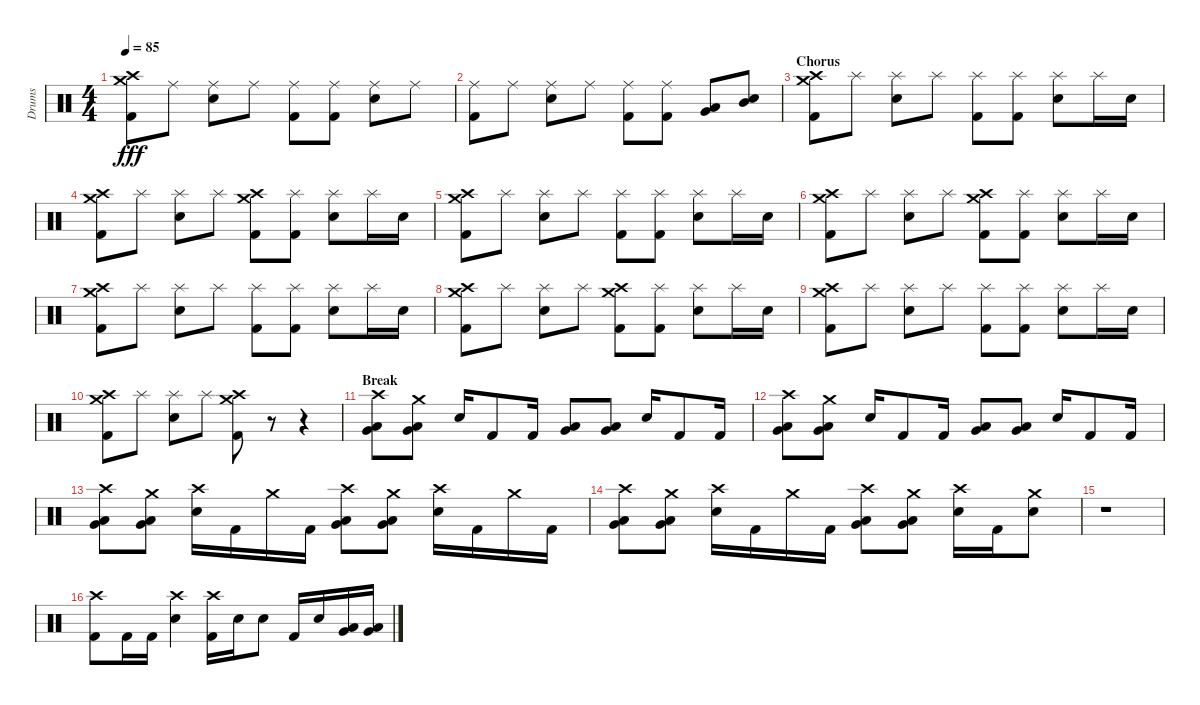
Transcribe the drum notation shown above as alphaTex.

\track ("Drums" "Drums") {instrument percussion}
\staff {score}
\articulation defaults
\ts (4 4)
\tempo 85
\clef neutral
\ks c
("Crash high (hit)" "Crash medium (hit)" "Kick (hit) 2").8{dy fff} "Ride (middle)".8 ("Ride (middle)" "Electric Snare (hit)").8 "Ride (middle)".8 ("Ride (middle)" "Kick (hit) 2").8 ("Ride (middle)" "Kick (hit) 2").8 ("Ride (middle)" "Electric Snare (hit)").8 "Ride (middle)".8 |
("Ride (middle)" "Kick (hit) 2").8 "Ride (middle)".8 ("Ride (middle)" "Electric Snare (hit)").8 "Ride (middle)".8 ("Ride (middle)" "Kick (hit) 2").8 ("Ride (middle)" "Kick (hit) 2").8 ("Low Tom (hit)" "Very Low Tom (hit)").8 ("Mid Tom (hit)" "Electric Snare (hit)").8 |
\section ("" "Chorus")
("Crash high (hit)" "Crash medium (hit)" "Kick (hit) 2").8 "Splash (hit)".8 ("Splash (hit)" "Electric Snare (hit)").8 "Splash (hit)".8 ("Splash (hit)" "Kick (hit) 2").8 ("Splash (hit)" "Kick (hit) 2").8 ("Splash (hit)" "Electric Snare (hit)").8 "Splash (hit)".16 "Electric Snare (hit)".16 |
("Crash high (hit)" "Crash medium (hit)" "Kick (hit) 2").8 "Splash (hit)".8 ("Splash (hit)" "Electric Snare (hit)").8 "Splash (hit)".8 ("Crash high (hit)" "Crash medium (hit)" "Kick (hit) 2").8 ("Splash (hit)" "Kick (hit) 2").8 ("Splash (hit)" "Electric Snare (hit)").8 "Splash (hit)".16 "Electric Snare (hit)".16 |
("Crash high (hit)" "Crash medium (hit)" "Kick (hit) 2").8 "Splash (hit)".8 ("Splash (hit)" "Electric Snare (hit)").8 "Splash (hit)".8 ("Splash (hit)" "Kick (hit) 2").8 ("Splash (hit)" "Kick (hit) 2").8 ("Splash (hit)" "Electric Snare (hit)").8 "Splash (hit)".16 "Electric Snare (hit)".16 |
("Crash high (hit)" "Crash medium (hit)" "Kick (hit) 2").8 "Splash (hit)".8 ("Splash (hit)" "Electric Snare (hit)").8 "Splash (hit)".8 ("Crash high (hit)" "Crash medium (hit)" "Kick (hit) 2").8 ("Splash (hit)" "Kick (hit) 2").8 ("Splash (hit)" "Electric Snare (hit)").8 "Splash (hit)".16 "Electric Snare (hit)".16 |
("Crash high (hit)" "Crash medium (hit)" "Kick (hit) 2").8 "Splash (hit)".8 ("Splash (hit)" "Electric Snare (hit)").8 "Splash (hit)".8 ("Splash (hit)" "Kick (hit) 2").8 ("Splash (hit)" "Kick (hit) 2").8 ("Splash (hit)" "Electric Snare (hit)").8 "Splash (hit)".16 "Electric Snare (hit)".16 |
("Crash high (hit)" "Crash medium (hit)" "Kick (hit) 2").8 "Splash (hit)".8 ("Splash (hit)" "Electric Snare (hit)").8 "Splash (hit)".8 ("Crash high (hit)" "Crash medium (hit)" "Kick (hit) 2").8 ("Splash (hit)" "Kick (hit) 2").8 ("Splash (hit)" "Electric Snare (hit)").8 "Splash (hit)".16 "Electric Snare (hit)".16 |
("Crash high (hit)" "Crash medium (hit)" "Kick (hit) 2").8 "Splash (hit)".8 ("Splash (hit)" "Electric Snare (hit)").8 "Splash (hit)".8 ("Splash (hit)" "Kick (hit) 2").8 ("Splash (hit)" "Kick (hit) 2").8 ("Splash (hit)" "Electric Snare (hit)").8 "Splash (hit)".16 "Electric Snare (hit)".16 |
("Crash high (hit)" "Crash medium (hit)" "Kick (hit) 2").8 "Splash (hit)".8 ("Splash (hit)" "Electric Snare (hit)").8 "Splash (hit)".8 ("Crash high (hit)" "Crash medium (hit)" "Kick (hit) 2").8 r.8 r.4 |
\section ("" "Break")
("Crash high (hit)" "Very Low Tom (hit)" "Low Floor Tom (hit)").8 ("Crash medium (hit)" "Very Low Tom (hit)" "Low Floor Tom (hit)").8 "Electric Snare (hit)".16 "Kick (hit) 2".8 "Kick (hit) 2".16 ("Very Low Tom (hit)" "Low Floor Tom (hit)").8 ("Very Low Tom (hit)" "Low Floor Tom (hit)").8 "Electric Snare (hit)".16 "Kick (hit) 2".8 "Kick (hit) 2".16 |
("Crash high (hit)" "Very Low Tom (hit)" "Low Floor Tom (hit)").8 ("Crash medium (hit)" "Very Low Tom (hit)" "Low Floor Tom (hit)").8 "Electric Snare (hit)".16 "Kick (hit) 2".8 "Kick (hit) 2".16 ("Very Low Tom (hit)" "Low Floor Tom (hit)").8 ("Very Low Tom (hit)" "Low Floor Tom (hit)").8 "Electric Snare (hit)".16 "Kick (hit) 2".8 "Kick (hit) 2".16 |
("Crash high (hit)" "Very Low Tom (hit)" "Low Floor Tom (hit)").8 ("Crash medium (hit)" "Very Low Tom (hit)" "Low Floor Tom (hit)").8 ("Crash high (hit)" "Electric Snare (hit)").16 "Kick (hit) 2".16 "Crash medium (hit)".16 "Kick (hit) 2".16 ("Crash high (hit)" "Very Low Tom (hit)" "Low Floor Tom (hit)").8 ("Crash medium (hit)" "Very Low Tom (hit)" "Low Floor Tom (hit)").8 ("Crash high (hit)" "Electric Snare (hit)").16 "Kick (hit) 2".16 "Crash medium (hit)".16 "Kick (hit) 2".16 |
("Crash high (hit)" "Very Low Tom (hit)" "Low Floor Tom (hit)").8 ("Crash medium (hit)" "Very Low Tom (hit)" "Low Floor Tom (hit)").8 ("Crash high (hit)" "Electric Snare (hit)").16 "Kick (hit) 2".16 "Crash medium (hit)".16 "Kick (hit) 2".16 ("Crash high (hit)" "Very Low Tom (hit)" "Low Floor Tom (hit)").8 ("Crash medium (hit)" "Very Low Tom (hit)" "Low Floor Tom (hit)").8 ("Crash high (hit)" "Electric Snare (hit)").16 "Kick (hit) 2".16 ("Crash medium (hit)" "Electric Snare (hit)").8 |
r.1 |
("Crash high (hit)" "Kick (hit) 2").8 "Kick (hit) 2".16 "Kick (hit) 2".16 ("Crash high (hit)" "Electric Snare (hit)").4 ("Crash high (hit)" "Kick (hit) 2").16 "Electric Snare (hit)".16 "Electric Snare (hit)".8 "Kick (hit) 2".16 "Electric Snare (hit)".16 ("Low Tom (hit)" "Very Low Tom (hit)").16 ("Very Low Tom (hit)" "Low Floor Tom (hit)").16
